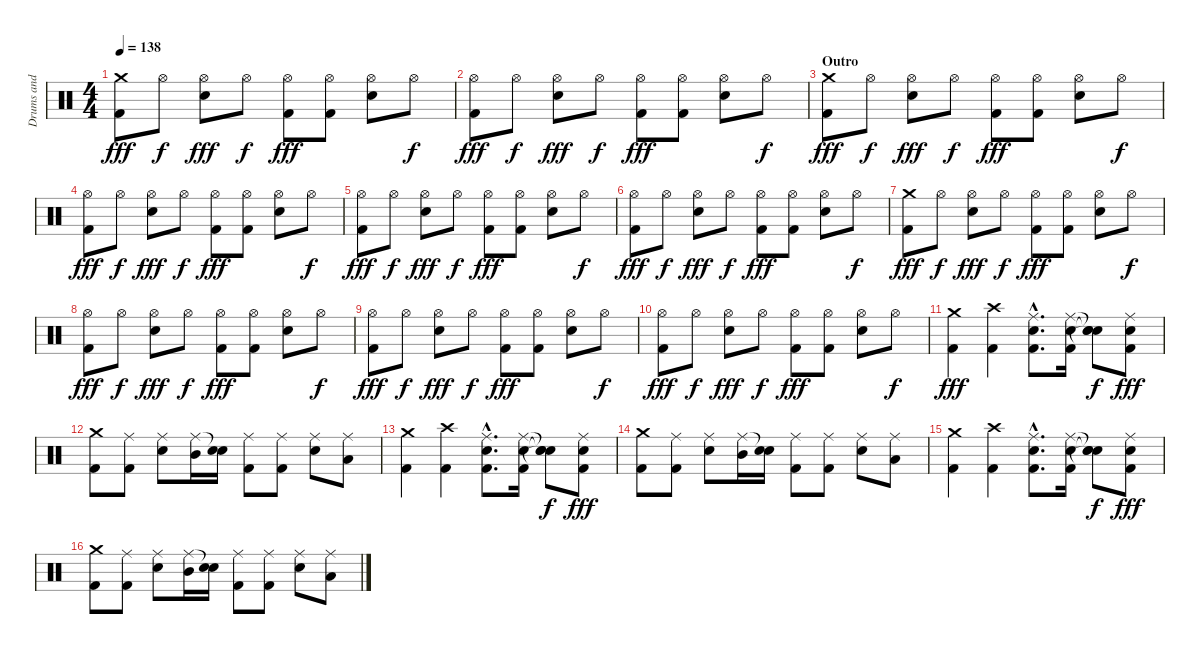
\track ("Drums and Percussion" "Drums and ") {instrument percussion}
\staff {score}
\articulation defaults
\ts (4 4)
\tempo 138
\clef neutral
\ks c
("Crash medium (hit)" "Kick (hit) 2").8{dy fff} "Hi-Hat (open)".8{dy f} ("Hi-Hat (open)" "Snare (hit) 2").8{dy fff} "Hi-Hat (open)".8{dy f} ("Hi-Hat (open)" "Kick (hit) 2").8{dy fff} ("Hi-Hat (open)" "Kick (hit) 2").8 ("Hi-Hat (open)" "Snare (hit) 2").8 "Hi-Hat (open)".8{dy f} |
("Hi-Hat (open)" "Kick (hit) 2").8{dy fff} "Hi-Hat (open)".8{dy f} ("Hi-Hat (open)" "Snare (hit) 2").8{dy fff} "Hi-Hat (open)".8{dy f} ("Hi-Hat (open)" "Kick (hit) 2").8{dy fff} ("Hi-Hat (open)" "Kick (hit) 2").8 ("Hi-Hat (open)" "Snare (hit) 2").8 "Hi-Hat (open)".8{dy f} |
\section ("" "Outro")
("Crash medium (hit)" "Kick (hit) 2").8{dy fff} "Hi-Hat (open)".8{dy f} ("Hi-Hat (open)" "Snare (hit) 2").8{dy fff} "Hi-Hat (open)".8{dy f} ("Hi-Hat (open)" "Kick (hit) 2").8{dy fff} ("Hi-Hat (open)" "Kick (hit) 2").8 ("Hi-Hat (open)" "Snare (hit) 2").8 "Hi-Hat (open)".8{dy f} |
("Hi-Hat (open)" "Kick (hit) 2").8{dy fff} "Hi-Hat (open)".8{dy f} ("Hi-Hat (open)" "Snare (hit) 2").8{dy fff} "Hi-Hat (open)".8{dy f} ("Hi-Hat (open)" "Kick (hit) 2").8{dy fff} ("Hi-Hat (open)" "Kick (hit) 2").8 ("Hi-Hat (open)" "Snare (hit) 2").8 "Hi-Hat (open)".8{dy f} |
("Hi-Hat (open)" "Kick (hit) 2").8{dy fff} "Hi-Hat (open)".8{dy f} ("Hi-Hat (open)" "Snare (hit) 2").8{dy fff} "Hi-Hat (open)".8{dy f} ("Hi-Hat (open)" "Kick (hit) 2").8{dy fff} ("Hi-Hat (open)" "Kick (hit) 2").8 ("Hi-Hat (open)" "Snare (hit) 2").8 "Hi-Hat (open)".8{dy f} |
("Hi-Hat (open)" "Kick (hit) 2").8{dy fff} "Hi-Hat (open)".8{dy f} ("Hi-Hat (open)" "Snare (hit) 2").8{dy fff} "Hi-Hat (open)".8{dy f} ("Hi-Hat (open)" "Kick (hit) 2").8{dy fff} ("Hi-Hat (open)" "Kick (hit) 2").8 ("Hi-Hat (open)" "Snare (hit) 2").8 "Hi-Hat (open)".8{dy f} |
("Crash medium (hit)" "Kick (hit) 2").8{dy fff} "Hi-Hat (open)".8{dy f} ("Hi-Hat (open)" "Snare (hit) 2").8{dy fff} "Hi-Hat (open)".8{dy f} ("Hi-Hat (open)" "Kick (hit) 2").8{dy fff} ("Hi-Hat (open)" "Kick (hit) 2").8 ("Hi-Hat (open)" "Snare (hit) 2").8 "Hi-Hat (open)".8{dy f} |
("Hi-Hat (open)" "Kick (hit) 2").8{dy fff} "Hi-Hat (open)".8{dy f} ("Hi-Hat (open)" "Snare (hit) 2").8{dy fff} "Hi-Hat (open)".8{dy f} ("Hi-Hat (open)" "Kick (hit) 2").8{dy fff} ("Hi-Hat (open)" "Kick (hit) 2").8 ("Hi-Hat (open)" "Snare (hit) 2").8 "Hi-Hat (open)".8{dy f} |
("Hi-Hat (open)" "Kick (hit) 2").8{dy fff} "Hi-Hat (open)".8{dy f} ("Hi-Hat (open)" "Snare (hit) 2").8{dy fff} "Hi-Hat (open)".8{dy f} ("Hi-Hat (open)" "Kick (hit) 2").8{dy fff} ("Hi-Hat (open)" "Kick (hit) 2").8 ("Hi-Hat (open)" "Snare (hit) 2").8 "Hi-Hat (open)".8{dy f} |
("Hi-Hat (open)" "Kick (hit) 2").8{dy fff} "Hi-Hat (open)".8{dy f} ("Hi-Hat (open)" "Snare (hit) 2").8{dy fff} "Hi-Hat (open)".8{dy f} ("Hi-Hat (open)" "Kick (hit) 2").8{dy fff} ("Hi-Hat (open)" "Kick (hit) 2").8 ("Hi-Hat (open)" "Snare (hit) 2").8 "Hi-Hat (open)".8{dy f} |
("Crash medium (hit)" "Kick (hit) 2").4{dy fff} ("Crash high (hit)" "Kick (hit) 2").4 ("Ride (middle)"{hac} "Snare (hit) 2"{hac} "Kick (hit) 2"{hac}).8{d} ("Ride (middle)" "Snare (hit) 2" "Kick (hit) 2").16 ("Snare (hit)"{t} "Snare (hit)"{t} "Snare (hit)"{t}).8{dy f} ("Ride (middle)" "Snare (hit) 2" "Kick (hit) 2").8{dy fff} |
("Crash medium (hit)" "Kick (hit) 2").8 ("Ride (middle)" "Kick (hit) 2").8 ("Ride (middle)" "Snare (hit) 2").8 ("Ride (middle)" "Mid Tom (hit)").16 ("Snare (hit)"{t} "Snare (hit) 2").16 ("Ride (middle)" "Kick (hit) 2").8 ("Ride (middle)" "Kick (hit) 2").8 ("Ride (middle)" "Snare (hit) 2").8 ("Ride (middle)" "Low Tom (hit)").8 |
("Crash medium (hit)" "Kick (hit) 2").4 ("Crash high (hit)" "Kick (hit) 2").4 ("Ride (middle)"{hac} "Snare (hit) 2"{hac} "Kick (hit) 2"{hac}).8{d} ("Ride (middle)" "Snare (hit) 2" "Kick (hit) 2").16 ("Snare (hit)"{t} "Snare (hit)"{t} "Snare (hit)"{t}).8{dy f} ("Ride (middle)" "Snare (hit) 2" "Kick (hit) 2").8{dy fff} |
("Crash medium (hit)" "Kick (hit) 2").8 ("Ride (middle)" "Kick (hit) 2").8 ("Ride (middle)" "Snare (hit) 2").8 ("Ride (middle)" "Mid Tom (hit)").16 ("Snare (hit)"{t} "Snare (hit) 2").16 ("Ride (middle)" "Kick (hit) 2").8 ("Ride (middle)" "Kick (hit) 2").8 ("Ride (middle)" "Snare (hit) 2").8 ("Ride (middle)" "Low Tom (hit)").8 |
("Crash medium (hit)" "Kick (hit) 2").4 ("Crash high (hit)" "Kick (hit) 2").4 ("Ride (middle)"{hac} "Snare (hit) 2"{hac} "Kick (hit) 2"{hac}).8{d} ("Ride (middle)" "Snare (hit) 2" "Kick (hit) 2").16 ("Snare (hit)"{t} "Snare (hit)"{t} "Snare (hit)"{t}).8{dy f} ("Ride (middle)" "Snare (hit) 2" "Kick (hit) 2").8{dy fff} |
("Crash medium (hit)" "Kick (hit) 2").8 ("Ride (middle)" "Kick (hit) 2").8 ("Ride (middle)" "Snare (hit) 2").8 ("Ride (middle)" "Mid Tom (hit)").16 ("Snare (hit)"{t} "Snare (hit) 2").16 ("Ride (middle)" "Kick (hit) 2").8 ("Ride (middle)" "Kick (hit) 2").8 ("Ride (middle)" "Snare (hit) 2").8 ("Ride (middle)" "Low Tom (hit)").8
